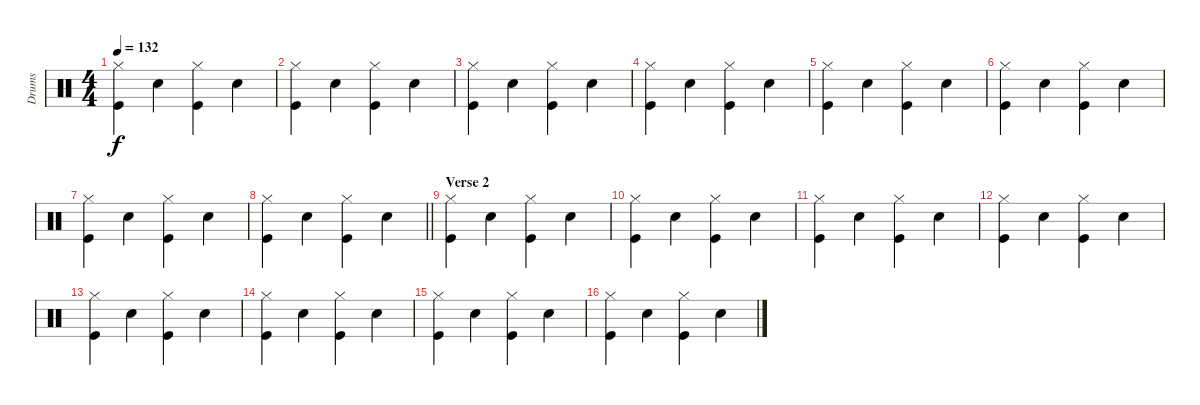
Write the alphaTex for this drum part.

\track ("Drums" "Drums") {instrument percussion}
\staff {score}
\articulation defaults
\ts (4 4)
\tempo 132
\clef neutral
\ks c
("Kick (hit)" "Hi-Hat (closed)").4{dy f} "Snare (hit) 2".4 ("Kick (hit)" "Hi-Hat (closed)").4 "Snare (hit) 2".4 |
("Kick (hit)" "Hi-Hat (closed)").4 "Snare (hit) 2".4 ("Kick (hit)" "Hi-Hat (closed)").4 "Snare (hit) 2".4 |
("Kick (hit)" "Hi-Hat (closed)").4 "Snare (hit) 2".4 ("Kick (hit)" "Hi-Hat (closed)").4 "Snare (hit) 2".4 |
("Kick (hit)" "Hi-Hat (closed)").4 "Snare (hit) 2".4 ("Kick (hit)" "Hi-Hat (closed)").4 "Snare (hit) 2".4 |
("Kick (hit)" "Hi-Hat (closed)").4 "Snare (hit) 2".4 ("Kick (hit)" "Hi-Hat (closed)").4 "Snare (hit) 2".4 |
("Kick (hit)" "Hi-Hat (closed)").4 "Snare (hit) 2".4 ("Kick (hit)" "Hi-Hat (closed)").4 "Snare (hit) 2".4 |
("Kick (hit)" "Hi-Hat (closed)").4 "Snare (hit) 2".4 ("Kick (hit)" "Hi-Hat (closed)").4 "Snare (hit) 2".4 |
\barLineRight lightlight
("Kick (hit)" "Hi-Hat (closed)").4 "Snare (hit) 2".4 ("Kick (hit)" "Hi-Hat (closed)").4 "Snare (hit) 2".4 |
\section ("" "Verse 2")
("Kick (hit)" "Hi-Hat (closed)").4 "Snare (hit) 2".4 ("Kick (hit)" "Hi-Hat (closed)").4 "Snare (hit) 2".4 |
("Kick (hit)" "Hi-Hat (closed)").4 "Snare (hit) 2".4 ("Kick (hit)" "Hi-Hat (closed)").4 "Snare (hit) 2".4 |
("Kick (hit)" "Hi-Hat (closed)").4 "Snare (hit) 2".4 ("Kick (hit)" "Hi-Hat (closed)").4 "Snare (hit) 2".4 |
("Kick (hit)" "Hi-Hat (closed)").4 "Snare (hit) 2".4 ("Kick (hit)" "Hi-Hat (closed)").4 "Snare (hit) 2".4 |
("Kick (hit)" "Hi-Hat (closed)").4 "Snare (hit) 2".4 ("Kick (hit)" "Hi-Hat (closed)").4 "Snare (hit) 2".4 |
("Kick (hit)" "Hi-Hat (closed)").4 "Snare (hit) 2".4 ("Kick (hit)" "Hi-Hat (closed)").4 "Snare (hit) 2".4 |
("Kick (hit)" "Hi-Hat (closed)").4 "Snare (hit) 2".4 ("Kick (hit)" "Hi-Hat (closed)").4 "Snare (hit) 2".4 |
("Kick (hit)" "Hi-Hat (closed)").4 "Snare (hit) 2".4 ("Kick (hit)" "Hi-Hat (closed)").4 "Snare (hit) 2".4
